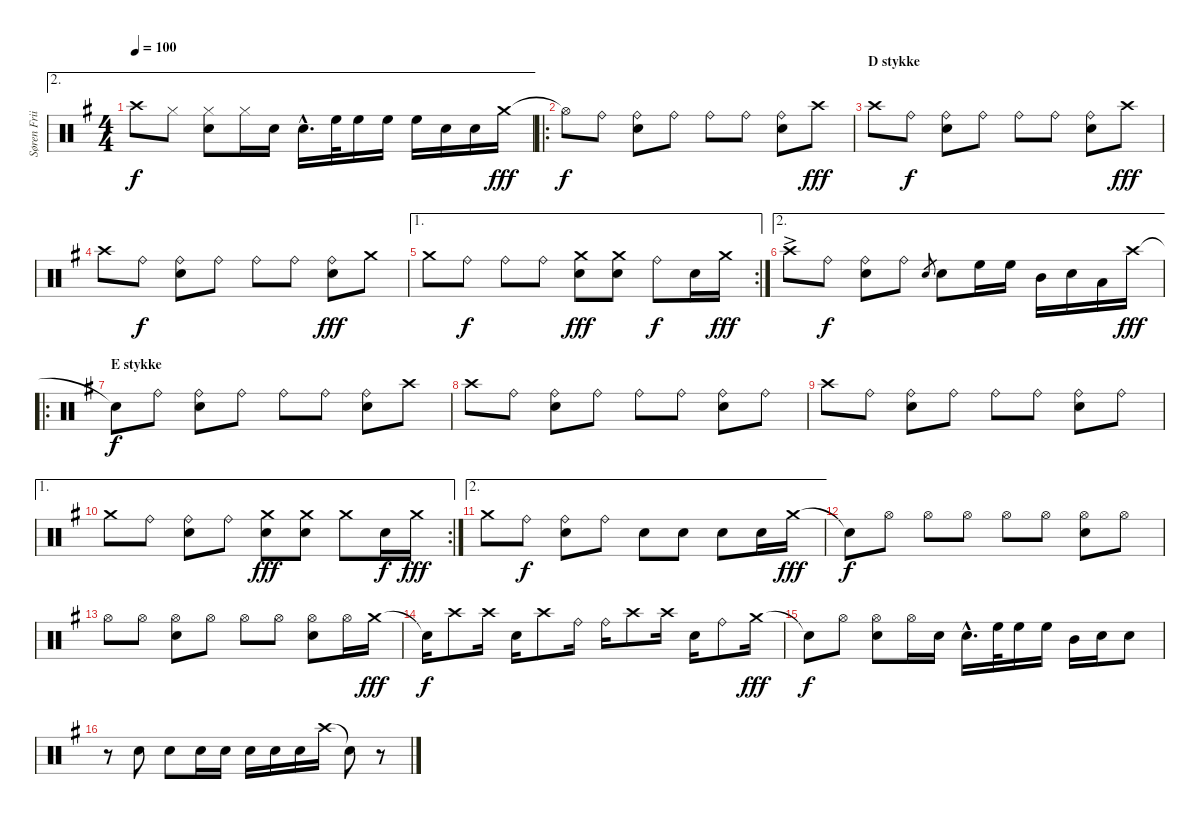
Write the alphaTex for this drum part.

\track ("Søren Friis (Drums)" "Søren Frii") {instrument percussion}
\staff {score}
\articulation defaults
\ae 2
\ts (4 4)
\tempo 100
\clef neutral
\ks g "Crash high (hit)".8{dy f} "Hi-Hat (closed)".8
("Hi-Hat (closed)" "Snare (hit) 2").8 "Hi-Hat (closed)".16 "Snare (hit) 2".16 "Snare (hit) 2"{hac}.16{d} "High Floor Tom (hit)".32 "High Floor Tom (hit)".16 "High Floor Tom (hit)".16 "High Floor Tom (hit)".16 "Snare (hit) 2".16 "Snare (hit) 2".16 "Crash medium (hit)".16{dy fff} |
\ro "Hi-Hat (open)"{t}.8{dy f} "Ride (bell)".8
("Ride (bell)" "Snare (hit) 2").8 "Ride (bell)".8 "Ride (bell)".8 "Ride (bell)".8 ("Ride (bell)" "Snare (hit) 2").8 "Crash high (hit)".8{dy fff} |
\section ("" "D stykke")
"Crash high (hit)".8 "Ride (bell)".8{dy f} ("Ride (bell)" "Snare (hit) 2").8 "Ride (bell)".8 "Ride (bell)".8 "Ride (bell)".8 ("Ride (bell)" "Snare (hit) 2").8 "Crash high (hit)".8{dy fff} |
"Crash high (hit)".8 "Ride (bell)".8{dy f} ("Ride (bell)" "Snare (hit) 2").8 "Ride (bell)".8 "Ride (bell)".8 "Ride (bell)".8 ("Ride (bell)" "Snare (hit) 2").8{dy fff} "Crash medium (hit)".8 |
\ae 1
\rc 2 "Crash medium (hit)".8 "Ride (bell)".8{dy f} "Ride (bell)".8 "Ride (bell)".8
("Crash medium (hit)" "Snare (hit) 2").8{dy fff} ("Crash medium (hit)" "Snare (hit) 2").8 "Ride (bell)".8{dy f} "Snare (hit) 2".16 "Crash medium (hit)".16{dy fff} |
\ae 2 "Crash high (hit)"{ac}.8 "Ride (bell)".8{dy f}
("Ride (bell)" "Snare (hit) 2").8 "Ride (bell)".8 "Snare (hit) 2".8{gr} "Snare (hit) 2".8 "High Floor Tom (hit)".16 "High Floor Tom (hit)".16 "Mid Tom (hit)".16 "Snare (hit) 2".16 "Low Tom (hit)".16 "Crash high (hit)".16{dy fff} |
\ro
\section ("" "E stykke")
"Snare (hit)"{t}.8{dy f} "Ride (bell)".8 ("Ride (bell)" "Snare (hit) 2").8 "Ride (bell)".8 "Ride (bell)".8 "Ride (bell)".8 ("Ride (bell)" "Snare (hit) 2").8 "Crash high (hit)".8 |
"Crash high (hit)".8 "Ride (bell)".8 ("Ride (bell)" "Snare (hit) 2").8 "Ride (bell)".8 "Ride (bell)".8 "Ride (bell)".8 ("Ride (bell)" "Snare (hit) 2").8 "Ride (bell)".8 |
"Crash high (hit)".8 "Ride (bell)".8 ("Ride (bell)" "Snare (hit) 2").8 "Ride (bell)".8 "Ride (bell)".8 "Ride (bell)".8 ("Ride (bell)" "Snare (hit) 2").8 "Ride (bell)".8 |
\ae 1
\rc 2 "Crash medium (hit)".8 "Ride (bell)".8
("Ride (bell)" "Snare (hit) 2").8 "Ride (bell)".8 ("Crash medium (hit)" "Snare (hit) 2").8{dy fff} ("Crash medium (hit)" "Snare (hit) 2").8 "Crash medium (hit)".8 "Snare (hit) 2".16{dy f} "Crash medium (hit)".16{dy fff} |
\ae 2 "Crash medium (hit)".8 "Ride (bell)".8{dy f}
("Ride (bell)" "Snare (hit) 2").8 "Ride (bell)".8 "Snare (hit) 2".8 "Snare (hit) 2".8 "Snare (hit) 2".8 "Snare (hit) 2".16 "Crash medium (hit)".16{dy fff} |
"Snare (hit)"{t}.8{dy f} "Hi-Hat (open)".8 "Hi-Hat (open)".8 "Hi-Hat (open)".8 "Hi-Hat (open)".8 "Hi-Hat (open)".8 ("Hi-Hat (open)" "Snare (hit) 2").8 "Hi-Hat (open)".8 |
"Hi-Hat (open)".8 "Hi-Hat (open)".8 ("Hi-Hat (open)" "Snare (hit) 2").8 "Hi-Hat (open)".8 "Hi-Hat (open)".8 "Hi-Hat (open)".8 ("Hi-Hat (open)" "Snare (hit) 2").8 "Hi-Hat (open)".16 "Crash medium (hit)".16{dy fff} |
"Snare (hit)"{t}.16{dy f} "Crash high (hit)".8 "Crash high (hit)".16 "Snare (hit) 2".16 "Crash high (hit)".8 "Ride (bell)".16 "Ride (bell)".16 "Crash high (hit)".8 "Crash high (hit)".16 "Snare (hit) 2".16 "Ride (bell)".8 "Crash medium (hit)".16{dy fff} |
"Snare (hit)"{t}.8{dy f} "Hi-Hat (open)".8 ("Hi-Hat (open)" "Snare (hit) 2").8 "Hi-Hat (open)".16 "Snare (hit) 2".16 "Snare (hit) 2"{hac}.16{d} "High Floor Tom (hit)".32 "High Floor Tom (hit)".16 "High Floor Tom (hit)".16 "Mid Tom (hit)".16 "Snare (hit) 2".16 "Snare (hit) 2".8 |
r.8 "Snare (hit) 2".8 "Snare (hit) 2".8 "Snare (hit) 2".16 "Snare (hit) 2".16 "Snare (hit) 2".16 "Snare (hit) 2".16 "Snare (hit) 2".16 "Crash high (hit)".16 "Snare (hit)"{t}.8 r.8
